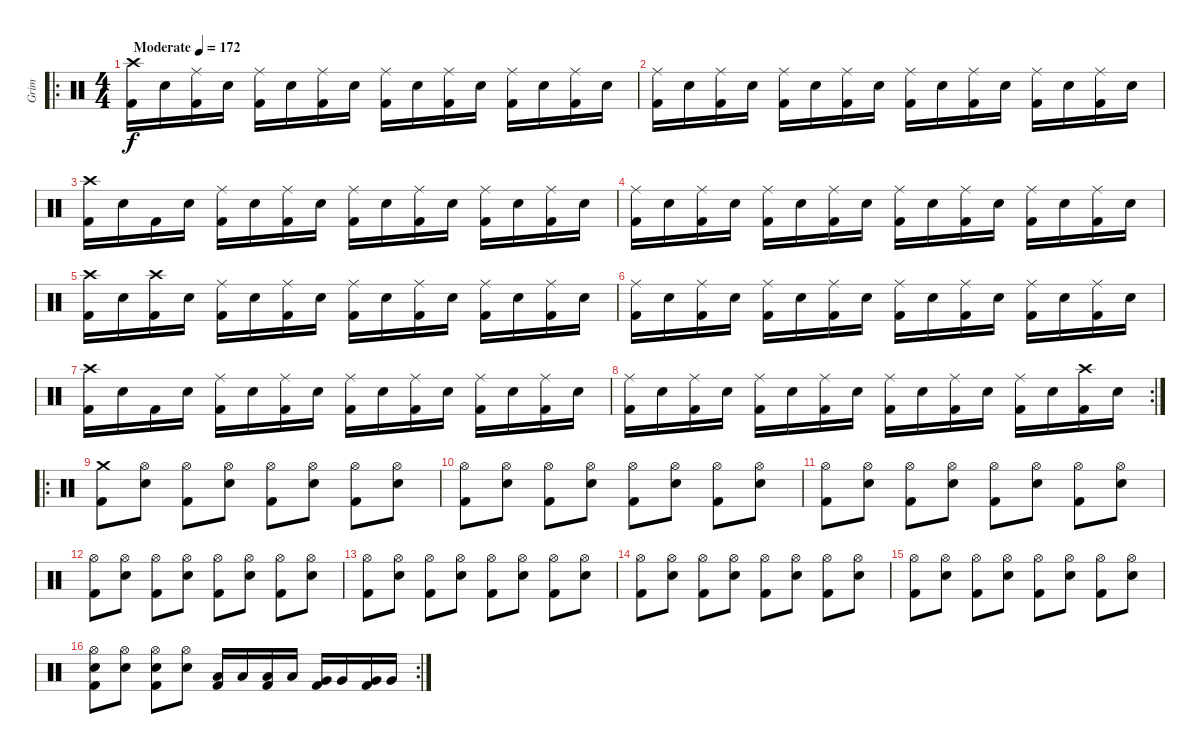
\track ("Grim" "Grim") {instrument percussion}
\staff {score}
\articulation defaults
\ro
\ts (4 4)
\tempo (172 "Moderate")
\clef neutral
\ks c
("Crash high (hit)" "Kick (hit) 2").16{dy f} "Electric Snare (hit)".16 ("Ride (middle)" "Kick (hit) 2").16 "Electric Snare (hit)".16 ("Ride (middle)" "Kick (hit) 2").16 "Electric Snare (hit)".16 ("Ride (middle)" "Kick (hit) 2").16 "Electric Snare (hit)".16 ("Ride (middle)" "Kick (hit) 2").16 "Electric Snare (hit)".16 ("Ride (middle)" "Kick (hit) 2").16 "Electric Snare (hit)".16 ("Ride (middle)" "Kick (hit) 2").16 "Electric Snare (hit)".16 ("Ride (middle)" "Kick (hit) 2").16 "Electric Snare (hit)".16 |
("Ride (middle)" "Kick (hit) 2").16 "Electric Snare (hit)".16 ("Ride (middle)" "Kick (hit) 2").16 "Electric Snare (hit)".16 ("Ride (middle)" "Kick (hit) 2").16 "Electric Snare (hit)".16 ("Ride (middle)" "Kick (hit) 2").16 "Electric Snare (hit)".16 ("Ride (middle)" "Kick (hit) 2").16 "Electric Snare (hit)".16 ("Ride (middle)" "Kick (hit) 2").16 "Electric Snare (hit)".16 ("Ride (middle)" "Kick (hit) 2").16 "Electric Snare (hit)".16 ("Ride (middle)" "Kick (hit) 2").16 "Electric Snare (hit)".16 |
("Crash high (hit)" "Kick (hit) 2").16 "Electric Snare (hit)".16 "Kick (hit) 2".16 "Electric Snare (hit)".16 ("Ride (middle)" "Kick (hit) 2").16 "Electric Snare (hit)".16 ("Ride (middle)" "Kick (hit) 2").16 "Electric Snare (hit)".16 ("Ride (middle)" "Kick (hit) 2").16 "Electric Snare (hit)".16 ("Ride (middle)" "Kick (hit) 2").16 "Electric Snare (hit)".16 ("Ride (middle)" "Kick (hit) 2").16 "Electric Snare (hit)".16 ("Ride (middle)" "Kick (hit) 2").16 "Electric Snare (hit)".16 |
("Ride (middle)" "Kick (hit) 2").16 "Electric Snare (hit)".16 ("Ride (middle)" "Kick (hit) 2").16 "Electric Snare (hit)".16 ("Ride (middle)" "Kick (hit) 2").16 "Electric Snare (hit)".16 ("Ride (middle)" "Kick (hit) 2").16 "Electric Snare (hit)".16 ("Ride (middle)" "Kick (hit) 2").16 "Electric Snare (hit)".16 ("Ride (middle)" "Kick (hit) 2").16 "Electric Snare (hit)".16 ("Ride (middle)" "Kick (hit) 2").16 "Electric Snare (hit)".16 ("Ride (middle)" "Kick (hit) 2").16 "Electric Snare (hit)".16 |
("Crash high (hit)" "Kick (hit) 2").16 "Electric Snare (hit)".16 ("Crash high (hit)" "Kick (hit) 2").16 "Electric Snare (hit)".16 ("Ride (middle)" "Kick (hit) 2").16 "Electric Snare (hit)".16 ("Ride (middle)" "Kick (hit) 2").16 "Electric Snare (hit)".16 ("Ride (middle)" "Kick (hit) 2").16 "Electric Snare (hit)".16 ("Ride (middle)" "Kick (hit) 2").16 "Electric Snare (hit)".16 ("Ride (middle)" "Kick (hit) 2").16 "Electric Snare (hit)".16 ("Ride (middle)" "Kick (hit) 2").16 "Electric Snare (hit)".16 |
("Ride (middle)" "Kick (hit) 2").16 "Electric Snare (hit)".16 ("Ride (middle)" "Kick (hit) 2").16 "Electric Snare (hit)".16 ("Ride (middle)" "Kick (hit) 2").16 "Electric Snare (hit)".16 ("Ride (middle)" "Kick (hit) 2").16 "Electric Snare (hit)".16 ("Ride (middle)" "Kick (hit) 2").16 "Electric Snare (hit)".16 ("Ride (middle)" "Kick (hit) 2").16 "Electric Snare (hit)".16 ("Ride (middle)" "Kick (hit) 2").16 "Electric Snare (hit)".16 ("Ride (middle)" "Kick (hit) 2").16 "Electric Snare (hit)".16 |
("Crash high (hit)" "Kick (hit) 2").16 "Electric Snare (hit)".16 "Kick (hit) 2".16 "Electric Snare (hit)".16 ("Ride (middle)" "Kick (hit) 2").16 "Electric Snare (hit)".16 ("Ride (middle)" "Kick (hit) 2").16 "Electric Snare (hit)".16 ("Ride (middle)" "Kick (hit) 2").16 "Electric Snare (hit)".16 ("Ride (middle)" "Kick (hit) 2").16 "Electric Snare (hit)".16 ("Ride (middle)" "Kick (hit) 2").16 "Electric Snare (hit)".16 ("Ride (middle)" "Kick (hit) 2").16 "Electric Snare (hit)".16 |
\rc 2
("Ride (middle)" "Kick (hit) 2").16 "Electric Snare (hit)".16 ("Ride (middle)" "Kick (hit) 2").16 "Electric Snare (hit)".16 ("Ride (middle)" "Kick (hit) 2").16 "Electric Snare (hit)".16 ("Ride (middle)" "Kick (hit) 2").16 "Electric Snare (hit)".16 ("Ride (middle)" "Kick (hit) 2").16 "Electric Snare (hit)".16 ("Ride (middle)" "Kick (hit) 2").16 "Electric Snare (hit)".16 ("Ride (middle)" "Kick (hit) 2").16 "Electric Snare (hit)".16 ("Crash high (hit)" "Kick (hit) 2").16 "Electric Snare (hit)".16 |
\ro
("Crash medium (hit)" "Kick (hit) 2").8 ("Hi-Hat (open)" "Electric Snare (hit)").8 ("Hi-Hat (open)" "Kick (hit) 2").8 ("Hi-Hat (open)" "Electric Snare (hit)").8 ("Hi-Hat (open)" "Kick (hit) 2").8 ("Hi-Hat (open)" "Electric Snare (hit)").8 ("Hi-Hat (open)" "Kick (hit) 2").8 ("Hi-Hat (open)" "Electric Snare (hit)").8 |
("Hi-Hat (open)" "Kick (hit) 2").8 ("Hi-Hat (open)" "Electric Snare (hit)").8 ("Hi-Hat (open)" "Kick (hit) 2").8 ("Hi-Hat (open)" "Electric Snare (hit)").8 ("Hi-Hat (open)" "Kick (hit) 2").8 ("Hi-Hat (open)" "Electric Snare (hit)").8 ("Hi-Hat (open)" "Kick (hit) 2").8 ("Hi-Hat (open)" "Electric Snare (hit)").8 |
("Hi-Hat (open)" "Kick (hit) 2").8 ("Hi-Hat (open)" "Electric Snare (hit)").8 ("Hi-Hat (open)" "Kick (hit) 2").8 ("Hi-Hat (open)" "Electric Snare (hit)").8 ("Hi-Hat (open)" "Kick (hit) 2").8 ("Hi-Hat (open)" "Electric Snare (hit)").8 ("Hi-Hat (open)" "Kick (hit) 2").8 ("Hi-Hat (open)" "Electric Snare (hit)").8 |
("Hi-Hat (open)" "Kick (hit) 2").8 ("Hi-Hat (open)" "Electric Snare (hit)").8 ("Hi-Hat (open)" "Kick (hit) 2").8 ("Hi-Hat (open)" "Electric Snare (hit)").8 ("Hi-Hat (open)" "Kick (hit) 2").8 ("Hi-Hat (open)" "Electric Snare (hit)").8 ("Hi-Hat (open)" "Kick (hit) 2").8 ("Hi-Hat (open)" "Electric Snare (hit)").8 |
("Hi-Hat (open)" "Kick (hit) 2").8 ("Hi-Hat (open)" "Electric Snare (hit)").8 ("Hi-Hat (open)" "Kick (hit) 2").8 ("Hi-Hat (open)" "Electric Snare (hit)").8 ("Hi-Hat (open)" "Kick (hit) 2").8 ("Hi-Hat (open)" "Electric Snare (hit)").8 ("Hi-Hat (open)" "Kick (hit) 2").8 ("Hi-Hat (open)" "Electric Snare (hit)").8 |
("Hi-Hat (open)" "Kick (hit) 2").8 ("Hi-Hat (open)" "Electric Snare (hit)").8 ("Hi-Hat (open)" "Kick (hit) 2").8 ("Hi-Hat (open)" "Electric Snare (hit)").8 ("Hi-Hat (open)" "Kick (hit) 2").8 ("Hi-Hat (open)" "Electric Snare (hit)").8 ("Hi-Hat (open)" "Kick (hit) 2").8 ("Hi-Hat (open)" "Electric Snare (hit)").8 |
("Hi-Hat (open)" "Kick (hit) 2").8 ("Hi-Hat (open)" "Electric Snare (hit)").8 ("Hi-Hat (open)" "Kick (hit) 2").8 ("Hi-Hat (open)" "Electric Snare (hit)").8 ("Hi-Hat (open)" "Kick (hit) 2").8 ("Hi-Hat (open)" "Electric Snare (hit)").8 ("Hi-Hat (open)" "Kick (hit) 2").8 ("Hi-Hat (open)" "Electric Snare (hit)").8 |
\rc 2
("Hi-Hat (open)" "Electric Snare (hit)" "Kick (hit) 2").8 ("Hi-Hat (open)" "Electric Snare (hit)").8 ("Hi-Hat (open)" "Electric Snare (hit)" "Kick (hit) 2").8 ("Hi-Hat (open)" "Electric Snare (hit)").8 ("Low Tom (hit)" "Kick (hit) 2").16 "Low Tom (hit)".16 ("Low Tom (hit)" "Kick (hit) 2").16 "Low Tom (hit)".16 ("Very Low Tom (hit)" "Kick (hit) 2").16 "Very Low Tom (hit)".16 ("Very Low Tom (hit)" "Kick (hit) 2").16 "Very Low Tom (hit)".16
